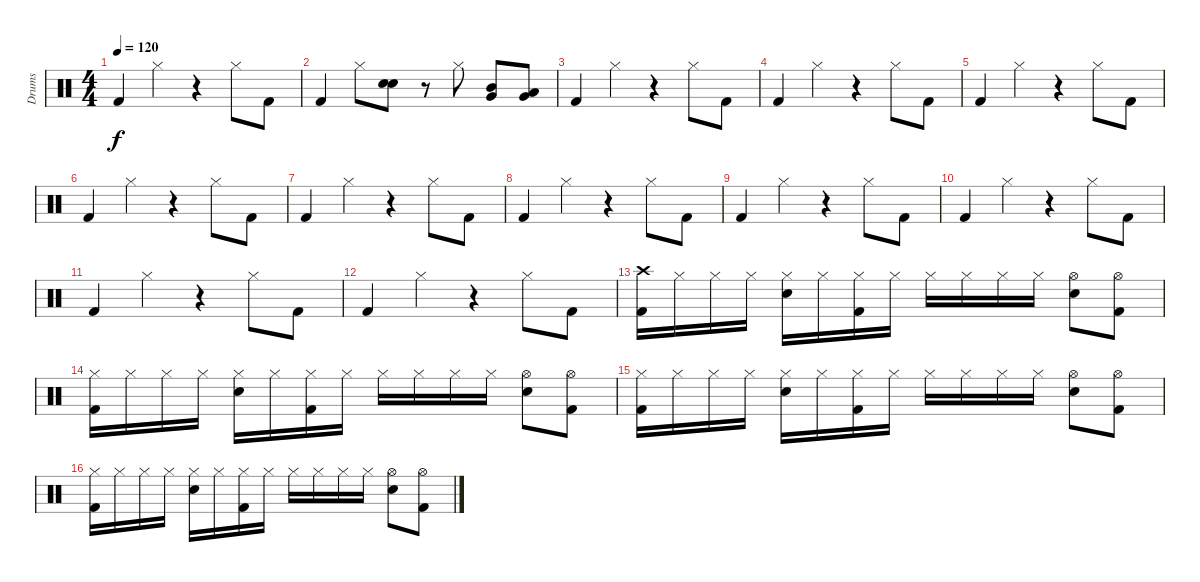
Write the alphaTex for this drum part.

\track ("Drums" "Drums") {instrument percussion}
\staff {score}
\articulation defaults
\ts (4 4)
\tempo 120
\clef neutral
\ks c "Kick (hit) 2".4{dy f} "Hi-Hat (closed)".4
r.4 "Hi-Hat (closed)".8 "Kick (hit) 2".8 |
"Kick (hit) 2".4 "Hi-Hat (closed)".8 ("Snare (hit) 2" "Snare (hit) 2").8 r.8 "Hi-Hat (closed)".8 ("Mid Tom (hit)" "Very Low Tom (hit)").8 ("Very Low Tom (hit)" "Low Floor Tom (hit)").8 |
"Kick (hit) 2".4 "Hi-Hat (closed)".4 r.4 "Hi-Hat (closed)".8 "Kick (hit) 2".8 |
"Kick (hit) 2".4 "Hi-Hat (closed)".4 r.4 "Hi-Hat (closed)".8 "Kick (hit) 2".8 |
"Kick (hit) 2".4 "Hi-Hat (closed)".4 r.4 "Hi-Hat (closed)".8 "Kick (hit) 2".8 |
"Kick (hit) 2".4 "Hi-Hat (closed)".4 r.4 "Hi-Hat (closed)".8 "Kick (hit) 2".8 |
"Kick (hit) 2".4 "Hi-Hat (closed)".4 r.4 "Hi-Hat (closed)".8 "Kick (hit) 2".8 |
"Kick (hit) 2".4 "Hi-Hat (closed)".4 r.4 "Hi-Hat (closed)".8 "Kick (hit) 2".8 |
"Kick (hit) 2".4 "Hi-Hat (closed)".4 r.4 "Hi-Hat (closed)".8 "Kick (hit) 2".8 |
"Kick (hit) 2".4 "Hi-Hat (closed)".4 r.4 "Hi-Hat (closed)".8 "Kick (hit) 2".8 |
"Kick (hit) 2".4 "Hi-Hat (closed)".4 r.4 "Hi-Hat (closed)".8 "Kick (hit) 2".8 |
"Kick (hit) 2".4 "Hi-Hat (closed)".4 r.4 "Hi-Hat (closed)".8 "Kick (hit) 2".8 |
("Crash high (hit)" "Kick (hit) 2").16 "Hi-Hat (closed)".16 "Hi-Hat (closed)".16 "Hi-Hat (closed)".16 ("Hi-Hat (closed)" "Snare (hit) 2").16 "Hi-Hat (closed)".16 ("Hi-Hat (closed)" "Kick (hit) 2").16 "Hi-Hat (closed)".16 "Hi-Hat (closed)".16 "Hi-Hat (closed)".16 "Hi-Hat (closed)".16 "Hi-Hat (closed)".16 ("Hi-Hat (open)" "Snare (hit) 2").8 ("Hi-Hat (open)" "Kick (hit) 2").8 |
("Hi-Hat (closed)" "Kick (hit) 2").16 "Hi-Hat (closed)".16 "Hi-Hat (closed)".16 "Hi-Hat (closed)".16 ("Hi-Hat (closed)" "Snare (hit) 2").16 "Hi-Hat (closed)".16 ("Hi-Hat (closed)" "Kick (hit) 2").16 "Hi-Hat (closed)".16 "Hi-Hat (closed)".16 "Hi-Hat (closed)".16 "Hi-Hat (closed)".16 "Hi-Hat (closed)".16 ("Hi-Hat (open)" "Snare (hit) 2").8 ("Hi-Hat (open)" "Kick (hit) 2").8 |
("Hi-Hat (closed)" "Kick (hit) 2").16 "Hi-Hat (closed)".16 "Hi-Hat (closed)".16 "Hi-Hat (closed)".16 ("Hi-Hat (closed)" "Snare (hit) 2").16 "Hi-Hat (closed)".16 ("Hi-Hat (closed)" "Kick (hit) 2").16 "Hi-Hat (closed)".16 "Hi-Hat (closed)".16 "Hi-Hat (closed)".16 "Hi-Hat (closed)".16 "Hi-Hat (closed)".16 ("Hi-Hat (open)" "Snare (hit) 2").8 ("Hi-Hat (open)" "Kick (hit) 2").8 |
("Hi-Hat (closed)" "Kick (hit) 2").16 "Hi-Hat (closed)".16 "Hi-Hat (closed)".16 "Hi-Hat (closed)".16 ("Hi-Hat (closed)" "Snare (hit) 2").16 "Hi-Hat (closed)".16 ("Hi-Hat (closed)" "Kick (hit) 2").16 "Hi-Hat (closed)".16 "Hi-Hat (closed)".16 "Hi-Hat (closed)".16 "Hi-Hat (closed)".16 "Hi-Hat (closed)".16 ("Hi-Hat (open)" "Snare (hit) 2").8 ("Hi-Hat (open)" "Kick (hit) 2").8
